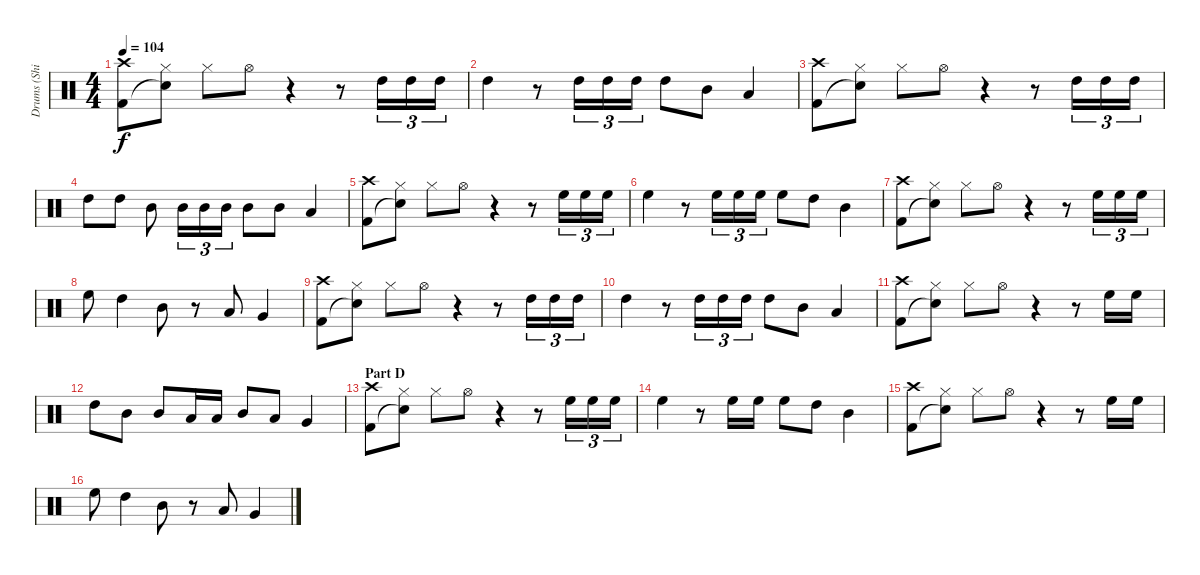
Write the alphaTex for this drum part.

\track ("Drums (Shinya)" "Drums (Shi") {instrument percussion}
\staff {score}
\articulation defaults
\ts (4 4)
\tempo 104
\clef neutral
\ks c
("Crash high (hit)" "Kick (hit) 2").8{dy f} ("Hi-Hat (closed)" "Snare (hit)"{t}).8 "Hi-Hat (closed)".8 "Hi-Hat (open)".8 r.4 r.8 "High Tom (hit)".16{tu (3 2)} "High Tom (hit)".16{tu (3 2)} "High Tom (hit)".16{tu (3 2)} |
"High Tom (hit)".4 r.8 "High Tom (hit)".16{tu (3 2)} "High Tom (hit)".16{tu (3 2)} "High Tom (hit)".16{tu (3 2)} "High Tom (hit)".8 "Mid Tom (hit)".8 "Low Tom (hit)".4 |
("Crash high (hit)" "Kick (hit) 2").8 ("Hi-Hat (closed)" "Snare (hit)"{t}).8 "Hi-Hat (closed)".8 "Hi-Hat (open)".8 r.4 r.8 "High Tom (hit)".16{tu (3 2)} "High Tom (hit)".16{tu (3 2)} "High Tom (hit)".16{tu (3 2)} |
"High Tom (hit)".8 "High Tom (hit)".8 "Mid Tom (hit)".8 "Mid Tom (hit)".16{tu (3 2)} "Mid Tom (hit)".16{tu (3 2)} "Mid Tom (hit)".16{tu (3 2)} "Mid Tom (hit)".8 "Mid Tom (hit)".8 "Low Tom (hit)".4 |
("Crash high (hit)" "Kick (hit) 2").8 ("Hi-Hat (closed)" "Snare (hit)"{t}).8 "Hi-Hat (closed)".8 "Hi-Hat (open)".8 r.4 r.8 "High Floor Tom (hit)".16{tu (3 2)} "High Floor Tom (hit)".16{tu (3 2)} "High Floor Tom (hit)".16{tu (3 2)} |
"High Floor Tom (hit)".4 r.8 "High Floor Tom (hit)".16{tu (3 2)} "High Floor Tom (hit)".16{tu (3 2)} "High Floor Tom (hit)".16{tu (3 2)} "High Floor Tom (hit)".8 "High Tom (hit)".8 "Mid Tom (hit)".4 |
("Crash high (hit)" "Kick (hit) 2").8 ("Hi-Hat (closed)" "Snare (hit)"{t}).8 "Hi-Hat (closed)".8 "Hi-Hat (open)".8 r.4 r.8 "High Floor Tom (hit)".16{tu (3 2)} "High Floor Tom (hit)".16{tu (3 2)} "High Floor Tom (hit)".16{tu (3 2)} |
"High Floor Tom (hit)".8 "High Tom (hit)".4 "Mid Tom (hit)".8 r.8 "Low Tom (hit)".8 "Very Low Tom (hit)".4 |
("Crash high (hit)" "Kick (hit) 2").8 ("Hi-Hat (closed)" "Snare (hit)"{t}).8 "Hi-Hat (closed)".8 "Hi-Hat (open)".8 r.4 r.8 "High Tom (hit)".16{tu (3 2)} "High Tom (hit)".16{tu (3 2)} "High Tom (hit)".16{tu (3 2)} |
"High Tom (hit)".4 r.8 "High Tom (hit)".16{tu (3 2)} "High Tom (hit)".16{tu (3 2)} "High Tom (hit)".16{tu (3 2)} "High Tom (hit)".8 "Mid Tom (hit)".8 "Low Tom (hit)".4 |
("Crash high (hit)" "Kick (hit) 2").8 ("Hi-Hat (closed)" "Snare (hit)"{t}).8 "Hi-Hat (closed)".8 "Hi-Hat (open)".8 r.4 r.8 "High Floor Tom (hit)".16 "High Floor Tom (hit)".16 |
"High Tom (hit)".8 "Mid Tom (hit)".8 "Mid Tom (hit)".8 "Low Tom (hit)".16 "Low Tom (hit)".16 "Mid Tom (hit)".8 "Low Tom (hit)".8 "Very Low Tom (hit)".4 |
\section ("" "Part D")
("Crash high (hit)" "Kick (hit) 2").8 ("Hi-Hat (closed)" "Snare (hit)"{t}).8 "Hi-Hat (closed)".8 "Hi-Hat (open)".8 r.4 r.8 "High Floor Tom (hit)".16{tu (3 2)} "High Floor Tom (hit)".16{tu (3 2)} "High Floor Tom (hit)".16{tu (3 2)} |
"High Floor Tom (hit)".4 r.8 "High Floor Tom (hit)".16 "High Floor Tom (hit)".16 "High Floor Tom (hit)".8 "High Tom (hit)".8 "Mid Tom (hit)".4 |
("Crash high (hit)" "Kick (hit) 2").8 ("Hi-Hat (closed)" "Snare (hit)"{t}).8 "Hi-Hat (closed)".8 "Hi-Hat (open)".8 r.4 r.8 "High Floor Tom (hit)".16 "High Floor Tom (hit)".16 |
"High Floor Tom (hit)".8 "High Tom (hit)".4 "Mid Tom (hit)".8 r.8 "Low Tom (hit)".8 "Very Low Tom (hit)".4
